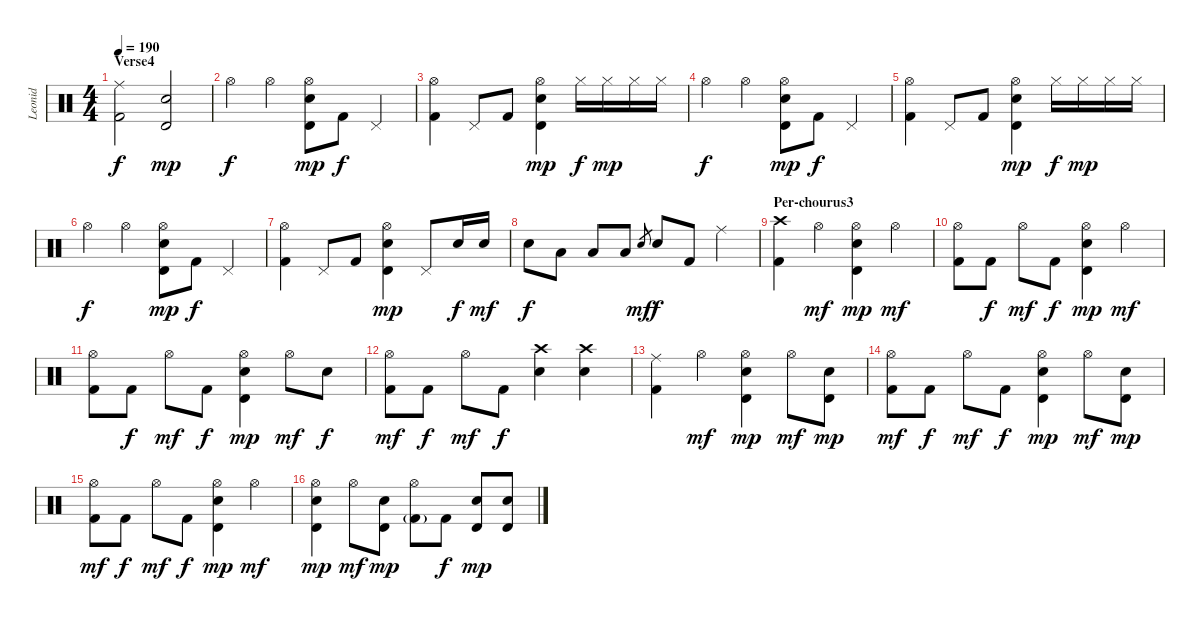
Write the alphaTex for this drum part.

\track ("Leonid" "Leonid") {instrument percussion}
\staff {score}
\articulation defaults
\ts (4 4)
\section ("" "Verse4")
\tempo 190
\clef neutral
\ks c
("Ride (middle)" "Kick (hit) 2").2{dy f} ("Timbale high (hit)" "Electric Snare (hit)").2{dy mp} |
"Hi-Hat (open)".4{dy f} "Hi-Hat (open)".4 ("Hi-Hat (open)" "Timbale high (hit)" "Electric Snare (hit)").8{dy mp} "Kick (hit) 2".8{dy f} "Pedal Hi-Hat (hit)".4 |
("Hi-Hat (open)" "Kick (hit) 2").4 "Pedal Hi-Hat (hit)".8 "Kick (hit) 2".8 ("Hi-Hat (open)" "Timbale high (hit)" "Electric Snare (hit)").4{dy mp} "Hi-Hat (closed)".16{dy f} "Hi-Hat (closed)".16{dy mp} "Hi-Hat (closed)".16 "Hi-Hat (closed)".16 |
"Hi-Hat (open)".4{dy f} "Hi-Hat (open)".4 ("Hi-Hat (open)" "Timbale high (hit)" "Electric Snare (hit)").8{dy mp} "Kick (hit) 2".8{dy f} "Pedal Hi-Hat (hit)".4 |
("Hi-Hat (open)" "Kick (hit) 2").4 "Pedal Hi-Hat (hit)".8 "Kick (hit) 2".8 ("Hi-Hat (open)" "Timbale high (hit)" "Electric Snare (hit)").4{dy mp} "Hi-Hat (closed)".16{dy f} "Hi-Hat (closed)".16{dy mp} "Hi-Hat (closed)".16 "Hi-Hat (closed)".16 |
"Hi-Hat (open)".4{dy f} "Hi-Hat (open)".4 ("Hi-Hat (open)" "Timbale high (hit)" "Electric Snare (hit)").8{dy mp} "Kick (hit) 2".8{dy f} "Pedal Hi-Hat (hit)".4 |
("Hi-Hat (open)" "Kick (hit) 2").4 "Pedal Hi-Hat (hit)".8 "Kick (hit) 2".8 ("Hi-Hat (open)" "Timbale high (hit)" "Electric Snare (hit)").4{dy mp} "Pedal Hi-Hat (hit)".8 "Electric Snare (hit)".16{dy f} "Electric Snare (hit)".16{dy mf} |
"Electric Snare (hit)".8{dy f} "Low Tom (hit)".8 "Low Tom (hit)".8 "Low Tom (hit)".8 "Electric Snare (hit)".8{gr dy mf} "Electric Snare (hit)".8{dy f} "Kick (hit) 2".8 "Ride (middle)".4 |
\section ("" "Per-chourus3")
("Crash high (hit)" "Kick (hit) 2").4 "Hi-Hat (open)".4{dy mf} ("Hi-Hat (open)" "Timbale high (hit)" "Electric Snare (hit)").4{dy mp} "Hi-Hat (open)".4{dy mf} |
("Hi-Hat (open)" "Kick (hit) 2").8 "Kick (hit) 2".8{dy f} "Hi-Hat (open)".8{dy mf} "Kick (hit) 2".8{dy f} ("Hi-Hat (open)" "Timbale high (hit)" "Electric Snare (hit)").4{dy mp} "Hi-Hat (open)".4{dy mf} |
("Hi-Hat (open)" "Kick (hit) 2").8 "Kick (hit) 2".8{dy f} "Hi-Hat (open)".8{dy mf} "Kick (hit) 2".8{dy f} ("Hi-Hat (open)" "Timbale high (hit)" "Electric Snare (hit)").4{dy mp} "Hi-Hat (open)".8{dy mf} "Electric Snare (hit)".8{dy f} |
("Hi-Hat (open)" "Kick (hit) 2").8{dy mf} "Kick (hit) 2".8{dy f} "Hi-Hat (open)".8{dy mf} "Kick (hit) 2".8{dy f} ("Crash high (hit)" "Electric Snare (hit)").4 ("Crash high (hit)" "Electric Snare (hit)").4 |
("Ride (middle)" "Kick (hit) 2").4 "Hi-Hat (open)".4{dy mf} ("Hi-Hat (open)" "Timbale high (hit)" "Electric Snare (hit)").4{dy mp} "Hi-Hat (open)".8{dy mf} ("Timbale high (hit)" "Electric Snare (hit)").8{dy mp} |
("Hi-Hat (open)" "Kick (hit) 2").8{dy mf} "Kick (hit) 2".8{dy f} "Hi-Hat (open)".8{dy mf} "Kick (hit) 2".8{dy f} ("Hi-Hat (open)" "Timbale high (hit)" "Electric Snare (hit)").4{dy mp} "Hi-Hat (open)".8{dy mf} ("Timbale high (hit)" "Electric Snare (hit)").8{dy mp} |
("Hi-Hat (open)" "Kick (hit) 2").8{dy mf} "Kick (hit) 2".8{dy f} "Hi-Hat (open)".8{dy mf} "Kick (hit) 2".8{dy f} ("Hi-Hat (open)" "Timbale high (hit)" "Electric Snare (hit)").4{dy mp} "Hi-Hat (open)".4{dy mf} |
("Hi-Hat (open)" "Timbale high (hit)" "Electric Snare (hit)").4{dy mp} "Hi-Hat (open)".8{dy mf} ("Timbale high (hit)" "Electric Snare (hit)").8{dy mp} ("Hi-Hat (open)" "Kick (hit) 2"{g}).8 "Kick (hit) 2".8{dy f} ("Timbale high (hit)" "Electric Snare (hit)").8{dy mp} ("Timbale high (hit)" "Electric Snare (hit)").8
